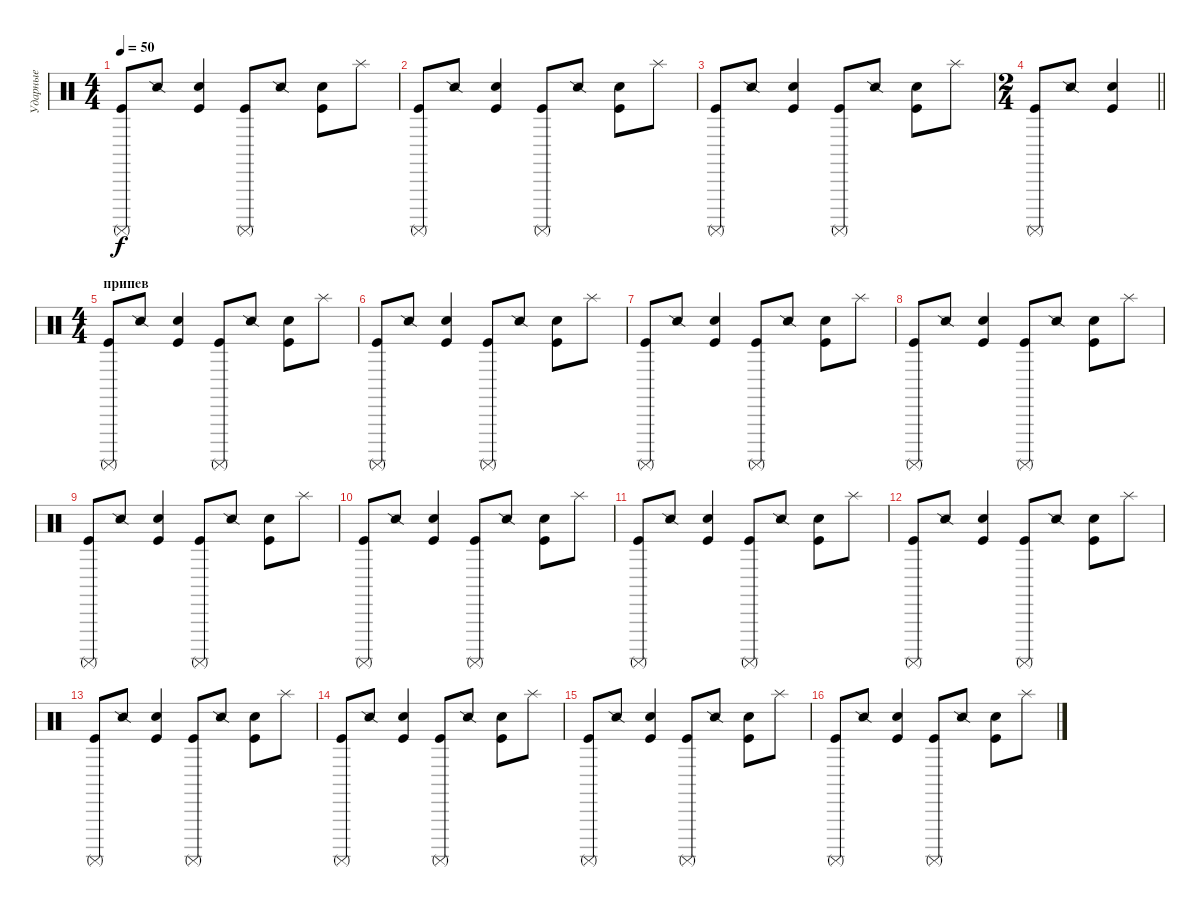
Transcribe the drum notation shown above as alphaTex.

\track ("Ударные" "Ударные") {instrument percussion}
\staff {score}
\articulation defaults
\ts (4 4)
\tempo 50
\clef neutral
\ks c
("Kick (hit)" "Surdo (mute)").8{dy f} "Snare (side stick) 2".8 ("Snare (hit) 2" "Kick (hit)").4 ("Kick (hit)" "Surdo (mute)").8 "Snare (side stick) 2".8 ("Snare (hit) 2" "Kick (hit)").8 "Splash (hit)".8 |
("Kick (hit)" "Surdo (mute)").8 "Snare (side stick) 2".8 ("Snare (hit) 2" "Kick (hit)").4 ("Kick (hit)" "Surdo (mute)").8 "Snare (side stick) 2".8 ("Snare (hit) 2" "Kick (hit)").8 "Splash (hit)".8 |
("Kick (hit)" "Surdo (mute)").8 "Snare (side stick) 2".8 ("Snare (hit) 2" "Kick (hit)").4 ("Kick (hit)" "Surdo (mute)").8 "Snare (side stick) 2".8 ("Snare (hit) 2" "Kick (hit)").8 "Splash (hit)".8 |
\ts (2 4)
\barLineRight lightlight
("Kick (hit)" "Surdo (mute)").8 "Snare (side stick) 2".8 ("Snare (hit) 2" "Kick (hit)").4 |
\ts (4 4)
\section ("" "припев")
("Kick (hit)" "Surdo (mute)").8 "Snare (side stick) 2".8 ("Snare (hit) 2" "Kick (hit)").4 ("Kick (hit)" "Surdo (mute)").8 "Snare (side stick) 2".8 ("Snare (hit) 2" "Kick (hit)").8 "Splash (hit)".8 |
("Kick (hit)" "Surdo (mute)").8 "Snare (side stick) 2".8 ("Snare (hit) 2" "Kick (hit)").4 ("Kick (hit)" "Surdo (mute)").8 "Snare (side stick) 2".8 ("Snare (hit) 2" "Kick (hit)").8 "Splash (hit)".8 |
("Kick (hit)" "Surdo (mute)").8 "Snare (side stick) 2".8 ("Snare (hit) 2" "Kick (hit)").4 ("Kick (hit)" "Surdo (mute)").8 "Snare (side stick) 2".8 ("Snare (hit) 2" "Kick (hit)").8 "Splash (hit)".8 |
("Kick (hit)" "Surdo (mute)").8 "Snare (side stick) 2".8 ("Snare (hit) 2" "Kick (hit)").4 ("Kick (hit)" "Surdo (mute)").8 "Snare (side stick) 2".8 ("Snare (hit) 2" "Kick (hit)").8 "Splash (hit)".8 |
("Kick (hit)" "Surdo (mute)").8 "Snare (side stick) 2".8 ("Snare (hit) 2" "Kick (hit)").4 ("Kick (hit)" "Surdo (mute)").8 "Snare (side stick) 2".8 ("Snare (hit) 2" "Kick (hit)").8 "Splash (hit)".8 |
("Kick (hit)" "Surdo (mute)").8 "Snare (side stick) 2".8 ("Snare (hit) 2" "Kick (hit)").4 ("Kick (hit)" "Surdo (mute)").8 "Snare (side stick) 2".8 ("Snare (hit) 2" "Kick (hit)").8 "Splash (hit)".8 |
("Kick (hit)" "Surdo (mute)").8 "Snare (side stick) 2".8 ("Snare (hit) 2" "Kick (hit)").4 ("Kick (hit)" "Surdo (mute)").8 "Snare (side stick) 2".8 ("Snare (hit) 2" "Kick (hit)").8 "Splash (hit)".8 |
("Kick (hit)" "Surdo (mute)").8 "Snare (side stick) 2".8 ("Snare (hit) 2" "Kick (hit)").4 ("Kick (hit)" "Surdo (mute)").8 "Snare (side stick) 2".8 ("Snare (hit) 2" "Kick (hit)").8 "Splash (hit)".8 |
("Kick (hit)" "Surdo (mute)").8 "Snare (side stick) 2".8 ("Snare (hit) 2" "Kick (hit)").4 ("Kick (hit)" "Surdo (mute)").8 "Snare (side stick) 2".8 ("Snare (hit) 2" "Kick (hit)").8 "Splash (hit)".8 |
("Kick (hit)" "Surdo (mute)").8 "Snare (side stick) 2".8 ("Snare (hit) 2" "Kick (hit)").4 ("Kick (hit)" "Surdo (mute)").8 "Snare (side stick) 2".8 ("Snare (hit) 2" "Kick (hit)").8 "Splash (hit)".8 |
("Kick (hit)" "Surdo (mute)").8 "Snare (side stick) 2".8 ("Snare (hit) 2" "Kick (hit)").4 ("Kick (hit)" "Surdo (mute)").8 "Snare (side stick) 2".8 ("Snare (hit) 2" "Kick (hit)").8 "Splash (hit)".8 |
("Kick (hit)" "Surdo (mute)").8 "Snare (side stick) 2".8 ("Snare (hit) 2" "Kick (hit)").4 ("Kick (hit)" "Surdo (mute)").8 "Snare (side stick) 2".8 ("Snare (hit) 2" "Kick (hit)").8 "Splash (hit)".8
